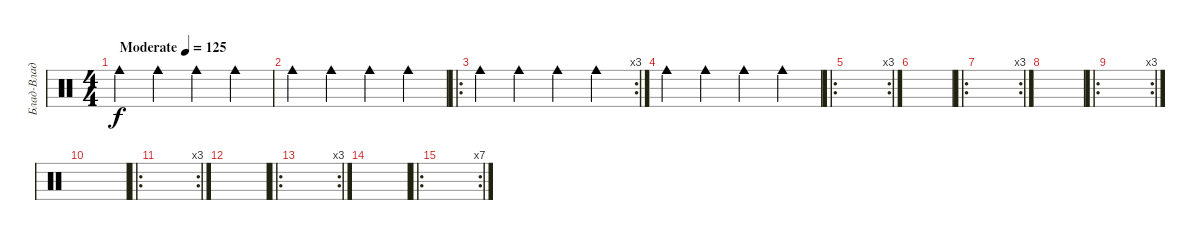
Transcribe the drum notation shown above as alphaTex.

\track ("Блад-Влад вёдра" "Блад-Влад ") {instrument percussion}
\staff
\articulation defaults
\ts (4 4)
\tempo (125 "Moderate")
\clef neutral
\ks c "Cowbell medium (hit)".4{dy f} "Cowbell medium (hit)".4 "Cowbell medium (hit)".4 "Cowbell medium (hit)".4
|
"Cowbell medium (hit)".4 "Cowbell medium (hit)".4 "Cowbell medium (hit)".4 "Cowbell medium (hit)".4 |
\ro
\rc 3 "Cowbell medium (hit)".4 "Cowbell medium (hit)".4 "Cowbell medium (hit)".4 "Cowbell medium (hit)".4
|
"Cowbell medium (hit)".4 "Cowbell medium (hit)".4 "Cowbell medium (hit)".4 "Cowbell medium (hit)".4 |
\ro
\rc 3
|
|
\ro
\rc 3
|
|
\ro
\rc 3
|
|
\ro
\rc 3
|
|
\ro
\rc 3
|
|
\ro
\rc 7
